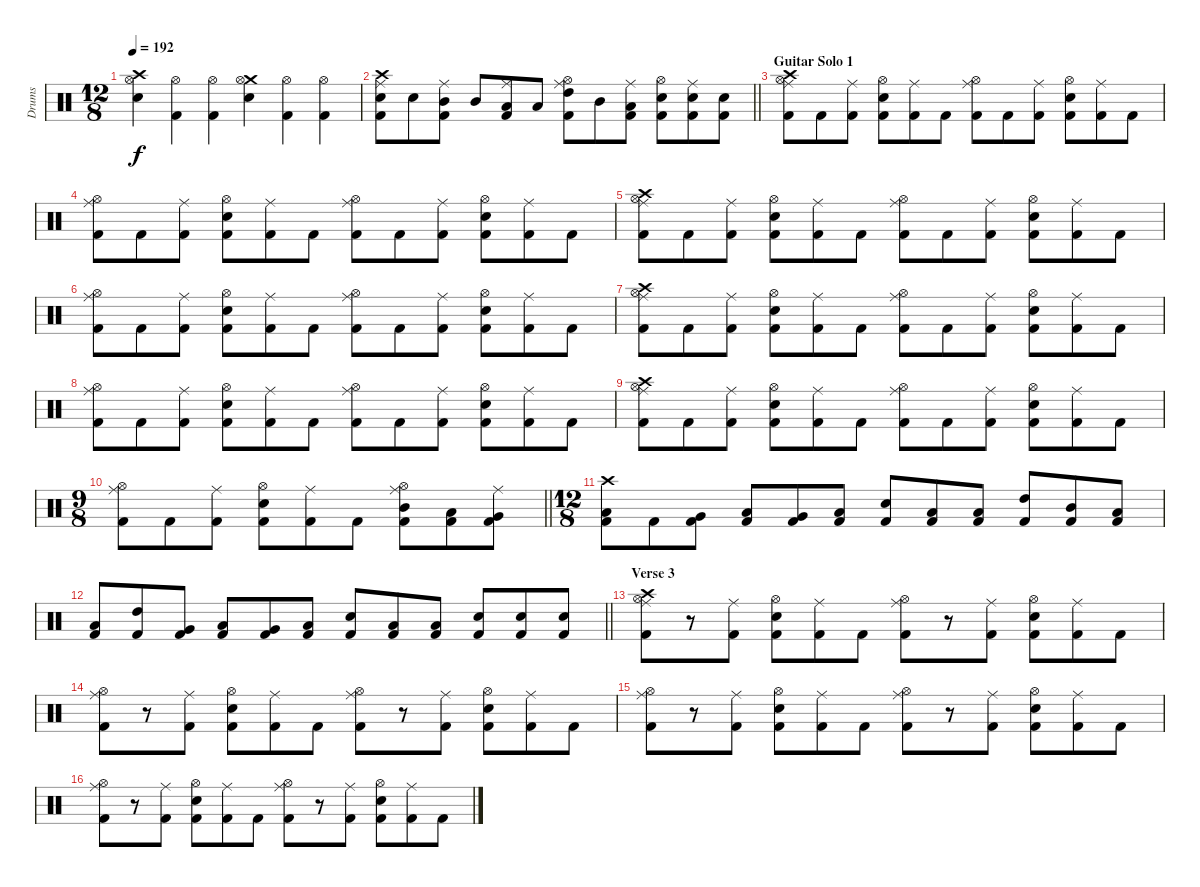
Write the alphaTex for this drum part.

\track ("Drums" "Drums") {instrument percussion}
\staff {score}
\articulation defaults
\ts (12 8)
\tempo 192
\clef neutral
\ks c
("Crash high (hit)" "Hi-Hat (open)" "Snare (hit) 2").4{dy f} ("Hi-Hat (open)" "Kick (hit) 2").4 ("Hi-Hat (open)" "Kick (hit) 2").4 ("Crash medium (hit)" "Hi-Hat (open)" "Snare (hit) 2").4 ("Hi-Hat (open)" "Kick (hit) 2").4 ("Hi-Hat (open)" "Kick (hit) 2").4 |
\barLineRight lightlight
("Crash high (hit)" "Ride (middle)" "Snare (hit) 2" "Kick (hit) 2").8 "Snare (hit) 2".8 ("Ride (middle)" "Mid Tom (hit)" "Kick (hit) 2").8 "Mid Tom (hit)".8 ("Ride (middle)" "Low Tom (hit)" "Kick (hit) 2").8 "Low Tom (hit)".8 ("Ride (middle)" "Hi-Hat (open)" "High Tom (hit)" "Kick (hit) 2").8 "Mid Tom (hit)".8 ("Ride (middle)" "Low Tom (hit)" "Kick (hit) 2").8 ("Hi-Hat (open)" "Snare (hit) 2" "Kick (hit) 2").8 ("Ride (middle)" "Snare (hit) 2" "Kick (hit) 2").8 ("Snare (hit) 2" "Kick (hit) 2").8 |
\section ("" "Guitar Solo 1")
("Crash high (hit)" "Ride (middle)" "Hi-Hat (open)" "Kick (hit) 2").8 "Kick (hit) 2".8 ("Ride (middle)" "Kick (hit) 2").8 ("Hi-Hat (open)" "Snare (hit) 2" "Kick (hit) 2").8 ("Ride (middle)" "Kick (hit) 2").8 "Kick (hit) 2".8 ("Ride (middle)" "Hi-Hat (open)" "Kick (hit) 2").8 "Kick (hit) 2".8 ("Ride (middle)" "Kick (hit) 2").8 ("Hi-Hat (open)" "Snare (hit) 2" "Kick (hit) 2").8 ("Ride (middle)" "Kick (hit) 2").8 "Kick (hit) 2".8 |
("Ride (middle)" "Hi-Hat (open)" "Kick (hit) 2").8 "Kick (hit) 2".8 ("Ride (middle)" "Kick (hit) 2").8 ("Hi-Hat (open)" "Snare (hit) 2" "Kick (hit) 2").8 ("Ride (middle)" "Kick (hit) 2").8 "Kick (hit) 2".8 ("Ride (middle)" "Hi-Hat (open)" "Kick (hit) 2").8 "Kick (hit) 2".8 ("Ride (middle)" "Kick (hit) 2").8 ("Hi-Hat (open)" "Snare (hit) 2" "Kick (hit) 2").8 ("Ride (middle)" "Kick (hit) 2").8 "Kick (hit) 2".8 |
("Crash high (hit)" "Ride (middle)" "Hi-Hat (open)" "Kick (hit) 2").8 "Kick (hit) 2".8 ("Ride (middle)" "Kick (hit) 2").8 ("Hi-Hat (open)" "Snare (hit) 2" "Kick (hit) 2").8 ("Ride (middle)" "Kick (hit) 2").8 "Kick (hit) 2".8 ("Ride (middle)" "Hi-Hat (open)" "Kick (hit) 2").8 "Kick (hit) 2".8 ("Ride (middle)" "Kick (hit) 2").8 ("Hi-Hat (open)" "Snare (hit) 2" "Kick (hit) 2").8 ("Ride (middle)" "Kick (hit) 2").8 "Kick (hit) 2".8 |
("Ride (middle)" "Hi-Hat (open)" "Kick (hit) 2").8 "Kick (hit) 2".8 ("Ride (middle)" "Kick (hit) 2").8 ("Hi-Hat (open)" "Snare (hit) 2" "Kick (hit) 2").8 ("Ride (middle)" "Kick (hit) 2").8 "Kick (hit) 2".8 ("Ride (middle)" "Hi-Hat (open)" "Kick (hit) 2").8 "Kick (hit) 2".8 ("Ride (middle)" "Kick (hit) 2").8 ("Hi-Hat (open)" "Snare (hit) 2" "Kick (hit) 2").8 ("Ride (middle)" "Kick (hit) 2").8 "Kick (hit) 2".8 |
("Crash high (hit)" "Ride (middle)" "Hi-Hat (open)" "Kick (hit) 2").8 "Kick (hit) 2".8 ("Ride (middle)" "Kick (hit) 2").8 ("Hi-Hat (open)" "Snare (hit) 2" "Kick (hit) 2").8 ("Ride (middle)" "Kick (hit) 2").8 "Kick (hit) 2".8 ("Ride (middle)" "Hi-Hat (open)" "Kick (hit) 2").8 "Kick (hit) 2".8 ("Ride (middle)" "Kick (hit) 2").8 ("Hi-Hat (open)" "Snare (hit) 2" "Kick (hit) 2").8 ("Ride (middle)" "Kick (hit) 2").8 "Kick (hit) 2".8 |
("Ride (middle)" "Hi-Hat (open)" "Kick (hit) 2").8 "Kick (hit) 2".8 ("Ride (middle)" "Kick (hit) 2").8 ("Hi-Hat (open)" "Snare (hit) 2" "Kick (hit) 2").8 ("Ride (middle)" "Kick (hit) 2").8 "Kick (hit) 2".8 ("Ride (middle)" "Hi-Hat (open)" "Kick (hit) 2").8 "Kick (hit) 2".8 ("Ride (middle)" "Kick (hit) 2").8 ("Hi-Hat (open)" "Snare (hit) 2" "Kick (hit) 2").8 ("Ride (middle)" "Kick (hit) 2").8 "Kick (hit) 2".8 |
("Crash high (hit)" "Ride (middle)" "Hi-Hat (open)" "Kick (hit) 2").8 "Kick (hit) 2".8 ("Ride (middle)" "Kick (hit) 2").8 ("Hi-Hat (open)" "Snare (hit) 2" "Kick (hit) 2").8 ("Ride (middle)" "Kick (hit) 2").8 "Kick (hit) 2".8 ("Ride (middle)" "Hi-Hat (open)" "Kick (hit) 2").8 "Kick (hit) 2".8 ("Ride (middle)" "Kick (hit) 2").8 ("Hi-Hat (open)" "Snare (hit) 2" "Kick (hit) 2").8 ("Ride (middle)" "Kick (hit) 2").8 "Kick (hit) 2".8 |
\ts (9 8)
\barLineRight lightlight
("Ride (middle)" "Hi-Hat (open)" "Kick (hit) 2").8 "Kick (hit) 2".8 ("Ride (middle)" "Kick (hit) 2").8 ("Hi-Hat (open)" "Snare (hit) 2" "Kick (hit) 2").8 ("Ride (middle)" "Kick (hit) 2").8 "Kick (hit) 2".8 ("Ride (middle)" "Hi-Hat (open)" "Mid Tom (hit)" "Kick (hit) 2").8 ("Low Tom (hit)" "Kick (hit) 2").8 ("Ride (middle)" "Very Low Tom (hit)" "Kick (hit) 2").8 |
\ts (12 8)
("Crash high (hit)" "Low Tom (hit)" "Kick (hit) 2").8 "Kick (hit) 2".8 ("Very Low Tom (hit)" "Kick (hit) 2").8 ("Low Tom (hit)" "Kick (hit) 2").8 ("Very Low Tom (hit)" "Kick (hit) 2").8 ("Low Floor Tom (hit)" "Kick (hit) 2").8 ("Snare (hit) 2" "Kick (hit) 2").8 ("Low Floor Tom (hit)" "Kick (hit) 2").8 ("Low Floor Tom (hit)" "Kick (hit) 2").8 ("High Tom (hit)" "Kick (hit) 2").8 ("Mid Tom (hit)" "Kick (hit) 2").8 ("Low Tom (hit)" "Kick (hit) 2").8 |
\barLineRight lightlight
("Low Tom (hit)" "Kick (hit) 2").8 ("High Tom (hit)" "Kick (hit) 2").8 ("Very Low Tom (hit)" "Kick (hit) 2").8 ("Low Tom (hit)" "Kick (hit) 2").8 ("Very Low Tom (hit)" "Kick (hit) 2").8 ("Low Floor Tom (hit)" "Kick (hit) 2").8 ("Snare (hit) 2" "Kick (hit) 2").8 ("Low Floor Tom (hit)" "Kick (hit) 2").8 ("Low Floor Tom (hit)" "Kick (hit) 2").8 ("Snare (hit) 2" "Kick (hit) 2").8 ("Snare (hit) 2" "Kick (hit) 2").8 ("Snare (hit) 2" "Kick (hit) 2").8 |
\section ("" "Verse 3")
("Crash high (hit)" "Ride (middle)" "Hi-Hat (open)" "Kick (hit) 2").8 r.8 ("Ride (middle)" "Kick (hit) 2").8 ("Hi-Hat (open)" "Snare (hit) 2" "Kick (hit) 2").8 ("Ride (middle)" "Kick (hit) 2").8 "Kick (hit) 2".8 ("Ride (middle)" "Hi-Hat (open)" "Kick (hit) 2").8 r.8 ("Ride (middle)" "Kick (hit) 2").8 ("Hi-Hat (open)" "Snare (hit) 2" "Kick (hit) 2").8 ("Ride (middle)" "Kick (hit) 2").8 "Kick (hit) 2".8 |
("Ride (middle)" "Hi-Hat (open)" "Kick (hit) 2").8 r.8 ("Ride (middle)" "Kick (hit) 2").8 ("Hi-Hat (open)" "Snare (hit) 2" "Kick (hit) 2").8 ("Ride (middle)" "Kick (hit) 2").8 "Kick (hit) 2".8 ("Ride (middle)" "Hi-Hat (open)" "Kick (hit) 2").8 r.8 ("Ride (middle)" "Kick (hit) 2").8 ("Hi-Hat (open)" "Snare (hit) 2" "Kick (hit) 2").8 ("Ride (middle)" "Kick (hit) 2").8 "Kick (hit) 2".8 |
("Ride (middle)" "Hi-Hat (open)" "Kick (hit) 2").8 r.8 ("Ride (middle)" "Kick (hit) 2").8 ("Hi-Hat (open)" "Snare (hit) 2" "Kick (hit) 2").8 ("Ride (middle)" "Kick (hit) 2").8 "Kick (hit) 2".8 ("Ride (middle)" "Hi-Hat (open)" "Kick (hit) 2").8 r.8 ("Ride (middle)" "Kick (hit) 2").8 ("Hi-Hat (open)" "Snare (hit) 2" "Kick (hit) 2").8 ("Ride (middle)" "Kick (hit) 2").8 "Kick (hit) 2".8 |
("Ride (middle)" "Hi-Hat (open)" "Kick (hit) 2").8 r.8 ("Ride (middle)" "Kick (hit) 2").8 ("Hi-Hat (open)" "Snare (hit) 2" "Kick (hit) 2").8 ("Ride (middle)" "Kick (hit) 2").8 "Kick (hit) 2".8 ("Ride (middle)" "Hi-Hat (open)" "Kick (hit) 2").8 r.8 ("Ride (middle)" "Kick (hit) 2").8 ("Hi-Hat (open)" "Snare (hit) 2" "Kick (hit) 2").8 ("Ride (middle)" "Kick (hit) 2").8 "Kick (hit) 2".8
